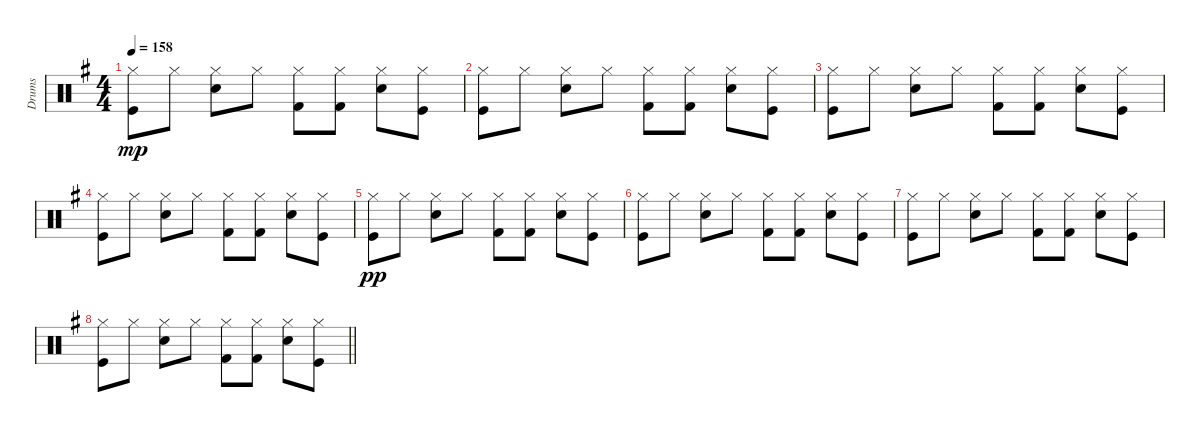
\track ("Drums" "Drums") {instrument percussion}
\staff {score}
\articulation defaults
\ts (4 4)
\tempo 158
\clef neutral
\ks g
("Hi-Hat (closed)" "Kick (hit)").8{dy mp} "Hi-Hat (closed)".8 ("Hi-Hat (closed)" "Snare (hit) 2").8 "Hi-Hat (closed)".8 ("Hi-Hat (closed)" "Kick (hit) 2").8 ("Hi-Hat (closed)" "Kick (hit) 2").8 ("Hi-Hat (closed)" "Snare (hit) 2").8 ("Hi-Hat (closed)" "Kick (hit)").8 |
("Hi-Hat (closed)" "Kick (hit)").8 "Hi-Hat (closed)".8 ("Hi-Hat (closed)" "Snare (hit) 2").8 "Hi-Hat (closed)".8 ("Hi-Hat (closed)" "Kick (hit) 2").8 ("Hi-Hat (closed)" "Kick (hit) 2").8 ("Hi-Hat (closed)" "Snare (hit) 2").8 ("Hi-Hat (closed)" "Kick (hit)").8 |
("Hi-Hat (closed)" "Kick (hit)").8 "Hi-Hat (closed)".8 ("Hi-Hat (closed)" "Snare (hit) 2").8 "Hi-Hat (closed)".8 ("Hi-Hat (closed)" "Kick (hit) 2").8 ("Hi-Hat (closed)" "Kick (hit) 2").8 ("Hi-Hat (closed)" "Snare (hit) 2").8 ("Hi-Hat (closed)" "Kick (hit)").8 |
("Hi-Hat (closed)" "Kick (hit)").8 "Hi-Hat (closed)".8 ("Hi-Hat (closed)" "Snare (hit) 2").8 "Hi-Hat (closed)".8 ("Hi-Hat (closed)" "Kick (hit) 2").8 ("Hi-Hat (closed)" "Kick (hit) 2").8 ("Hi-Hat (closed)" "Snare (hit) 2").8 ("Hi-Hat (closed)" "Kick (hit)").8 |
("Hi-Hat (closed)" "Kick (hit)").8{dy pp} "Hi-Hat (closed)".8 ("Hi-Hat (closed)" "Snare (hit) 2").8 "Hi-Hat (closed)".8 ("Hi-Hat (closed)" "Kick (hit) 2").8 ("Hi-Hat (closed)" "Kick (hit) 2").8 ("Hi-Hat (closed)" "Snare (hit) 2").8 ("Hi-Hat (closed)" "Kick (hit)").8 |
("Hi-Hat (closed)" "Kick (hit)").8 "Hi-Hat (closed)".8 ("Hi-Hat (closed)" "Snare (hit) 2").8 "Hi-Hat (closed)".8 ("Hi-Hat (closed)" "Kick (hit) 2").8 ("Hi-Hat (closed)" "Kick (hit) 2").8 ("Hi-Hat (closed)" "Snare (hit) 2").8 ("Hi-Hat (closed)" "Kick (hit)").8 |
("Hi-Hat (closed)" "Kick (hit)").8 "Hi-Hat (closed)".8 ("Hi-Hat (closed)" "Snare (hit) 2").8 "Hi-Hat (closed)".8 ("Hi-Hat (closed)" "Kick (hit) 2").8 ("Hi-Hat (closed)" "Kick (hit) 2").8 ("Hi-Hat (closed)" "Snare (hit) 2").8 ("Hi-Hat (closed)" "Kick (hit)").8 |
\barLineRight lightlight
("Hi-Hat (closed)" "Kick (hit)").8 "Hi-Hat (closed)".8 ("Hi-Hat (closed)" "Snare (hit) 2").8 "Hi-Hat (closed)".8 ("Hi-Hat (closed)" "Kick (hit) 2").8 ("Hi-Hat (closed)" "Kick (hit) 2").8 ("Hi-Hat (closed)" "Snare (hit) 2").8 ("Hi-Hat (closed)" "Kick (hit)").8
